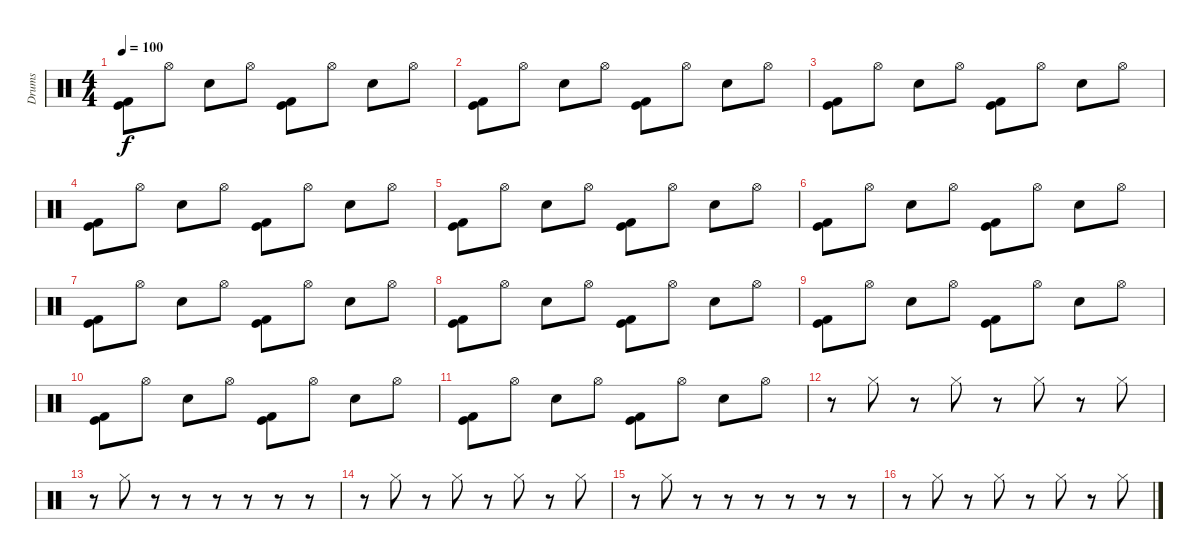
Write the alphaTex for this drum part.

\track ("Drums" "Drums") {instrument percussion}
\staff {score}
\articulation defaults
\ts (4 4)
\tempo 100
\clef neutral
\ks c
("Kick (hit) 2" "Kick (hit)").8{dy f} "Hi-Hat (open)".8 "Snare (hit) 2".8 "Hi-Hat (open)".8 ("Kick (hit) 2" "Kick (hit)").8 "Hi-Hat (open)".8 "Snare (hit) 2".8 "Hi-Hat (open)".8 |
("Kick (hit) 2" "Kick (hit)").8 "Hi-Hat (open)".8 "Snare (hit) 2".8 "Hi-Hat (open)".8 ("Kick (hit) 2" "Kick (hit)").8 "Hi-Hat (open)".8 "Snare (hit) 2".8 "Hi-Hat (open)".8 |
("Kick (hit) 2" "Kick (hit)").8 "Hi-Hat (open)".8 "Snare (hit) 2".8 "Hi-Hat (open)".8 ("Kick (hit) 2" "Kick (hit)").8 "Hi-Hat (open)".8 "Snare (hit) 2".8 "Hi-Hat (open)".8 |
("Kick (hit) 2" "Kick (hit)").8 "Hi-Hat (open)".8 "Snare (hit) 2".8 "Hi-Hat (open)".8 ("Kick (hit) 2" "Kick (hit)").8 "Hi-Hat (open)".8 "Snare (hit) 2".8 "Hi-Hat (open)".8 |
("Kick (hit) 2" "Kick (hit)").8 "Hi-Hat (open)".8 "Snare (hit) 2".8 "Hi-Hat (open)".8 ("Kick (hit) 2" "Kick (hit)").8 "Hi-Hat (open)".8 "Snare (hit) 2".8 "Hi-Hat (open)".8 |
("Kick (hit) 2" "Kick (hit)").8 "Hi-Hat (open)".8 "Snare (hit) 2".8 "Hi-Hat (open)".8 ("Kick (hit) 2" "Kick (hit)").8 "Hi-Hat (open)".8 "Snare (hit) 2".8 "Hi-Hat (open)".8 |
("Kick (hit) 2" "Kick (hit)").8 "Hi-Hat (open)".8 "Snare (hit) 2".8 "Hi-Hat (open)".8 ("Kick (hit) 2" "Kick (hit)").8 "Hi-Hat (open)".8 "Snare (hit) 2".8 "Hi-Hat (open)".8 |
("Kick (hit) 2" "Kick (hit)").8 "Hi-Hat (open)".8 "Snare (hit) 2".8 "Hi-Hat (open)".8 ("Kick (hit) 2" "Kick (hit)").8 "Hi-Hat (open)".8 "Snare (hit) 2".8 "Hi-Hat (open)".8 |
("Kick (hit) 2" "Kick (hit)").8 "Hi-Hat (open)".8 "Snare (hit) 2".8 "Hi-Hat (open)".8 ("Kick (hit) 2" "Kick (hit)").8 "Hi-Hat (open)".8 "Snare (hit) 2".8 "Hi-Hat (open)".8 |
("Kick (hit) 2" "Kick (hit)").8 "Hi-Hat (open)".8 "Snare (hit) 2".8 "Hi-Hat (open)".8 ("Kick (hit) 2" "Kick (hit)").8 "Hi-Hat (open)".8 "Snare (hit) 2".8 "Hi-Hat (open)".8 |
("Kick (hit) 2" "Kick (hit)").8 "Hi-Hat (open)".8 "Snare (hit) 2".8 "Hi-Hat (open)".8 ("Kick (hit) 2" "Kick (hit)").8 "Hi-Hat (open)".8 "Snare (hit) 2".8 "Hi-Hat (open)".8 |
r.8 "Hi-Hat (closed)".8 r.8 "Hi-Hat (closed)".8 r.8 "Hi-Hat (closed)".8 r.8 "Hi-Hat (closed)".8 |
r.8 "Hi-Hat (closed)".8 r.8 r.8 r.8 r.8 r.8 r.8 |
r.8 "Hi-Hat (closed)".8 r.8 "Hi-Hat (closed)".8 r.8 "Hi-Hat (closed)".8 r.8 "Hi-Hat (closed)".8 |
r.8 "Hi-Hat (closed)".8 r.8 r.8 r.8 r.8 r.8 r.8 |
r.8 "Hi-Hat (closed)".8 r.8 "Hi-Hat (closed)".8 r.8 "Hi-Hat (closed)".8 r.8 "Hi-Hat (closed)".8
